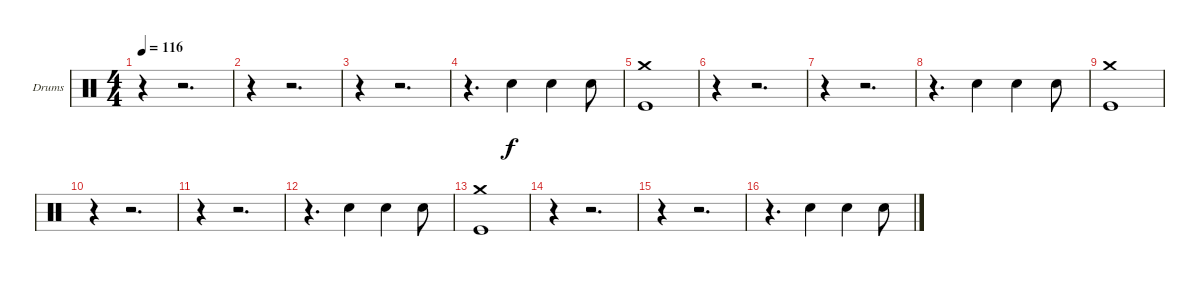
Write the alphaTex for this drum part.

\bracketExtendMode groupsimilarinstruments
\firstSystemTrackNameOrientation horizontal
\otherSystemsTrackNameOrientation horizontal
\track ("Drumkit" "Drums") {instrument percussion}
\staff {score}
\articulation defaults
\ts (4 4)
\tempo 116
\clef neutral
\ks c
r.4{dy f} r.2{d} |
r.4 r.2{d} |
r.4 r.2{d} |
r.4{d} "Snare (hit) 2".4 "Snare (hit) 2".4 "Snare (hit) 2".8 |
("Kick (hit)" "Crash medium (hit)").1 |
r.4 r.2{d} |
r.4 r.2{d} |
r.4{d} "Snare (hit) 2".4 "Snare (hit) 2".4 "Snare (hit) 2".8 |
("Kick (hit)" "Crash medium (hit)").1 |
r.4 r.2{d} |
r.4 r.2{d} |
r.4{d} "Snare (hit) 2".4 "Snare (hit) 2".4 "Snare (hit) 2".8 |
("Kick (hit)" "Crash medium (hit)").1 |
r.4 r.2{d} |
r.4 r.2{d} |
r.4{d} "Snare (hit) 2".4 "Snare (hit) 2".4 "Snare (hit) 2".8
